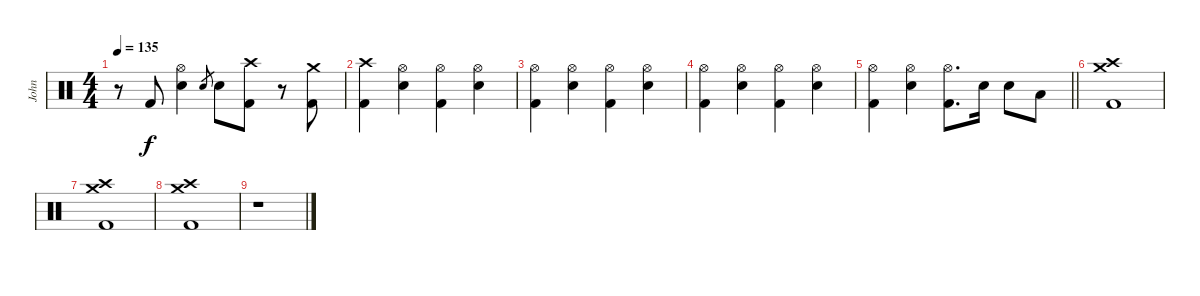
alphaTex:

\track ("John" "John") {instrument percussion}
\staff {score}
\articulation defaults
\ts (4 4)
\tempo 135
\clef neutral
\ks c
r.8{dy f} "Kick (hit) 2".8 ("Hi-Hat (open)" "Electric Snare (hit)").4 "Electric Snare (hit)".8{gr} "Electric Snare (hit)".8 ("Crash high (hit)" "Kick (hit) 2").8 r.8 ("Crash medium (hit)" "Kick (hit) 2").8 |
("Crash high (hit)" "Kick (hit) 2").4 ("Hi-Hat (open)" "Electric Snare (hit)").4 ("Hi-Hat (open)" "Kick (hit) 2").4 ("Hi-Hat (open)" "Electric Snare (hit)").4 |
("Hi-Hat (open)" "Kick (hit) 2").4 ("Hi-Hat (open)" "Electric Snare (hit)").4 ("Hi-Hat (open)" "Kick (hit) 2").4 ("Hi-Hat (open)" "Electric Snare (hit)").4 |
("Hi-Hat (open)" "Kick (hit) 2").4 ("Hi-Hat (open)" "Electric Snare (hit)").4 ("Hi-Hat (open)" "Kick (hit) 2").4 ("Hi-Hat (open)" "Electric Snare (hit)").4 |
\barLineRight lightlight
("Hi-Hat (open)" "Kick (hit) 2").4 ("Hi-Hat (open)" "Electric Snare (hit)").4 ("Hi-Hat (open)" "Kick (hit) 2").8{d} "Electric Snare (hit)".16 "Electric Snare (hit)".8 "Low Tom (hit)".8 |
("Crash high (hit)" "Crash medium (hit)" "Kick (hit) 2").1 |
("Crash high (hit)" "Crash medium (hit)" "Kick (hit) 2").1 |
("Crash high (hit)" "Crash medium (hit)" "Kick (hit) 2").1 |
r.1{volume 0}
